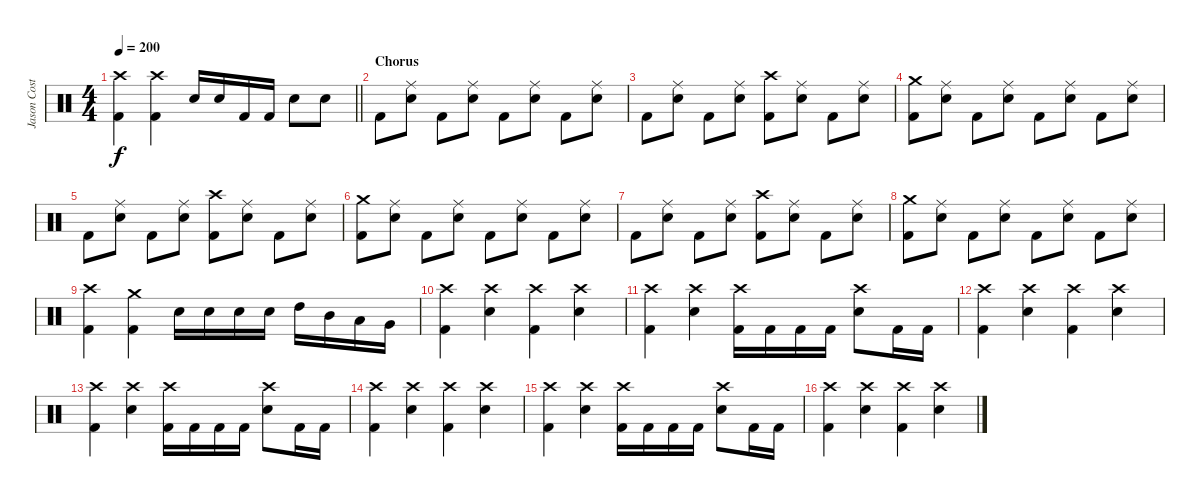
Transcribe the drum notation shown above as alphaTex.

\track ("Jason Costa" "Jason Cost") {instrument percussion}
\staff {score}
\articulation defaults
\ts (4 4)
\tempo 200
\clef neutral
\barLineRight lightlight
\ks c
("Crash high (hit)" "Kick (hit) 2").4{dy f} ("Crash high (hit)" "Kick (hit) 2").4 "Electric Snare (hit)".16 "Electric Snare (hit)".16 "Kick (hit) 2".16 "Kick (hit) 2".16 "Electric Snare (hit)".8 "Electric Snare (hit)".8 |
\section ("" "Chorus")
"Kick (hit) 2".8 ("Ride (middle)" "Electric Snare (hit)").8 "Kick (hit) 2".8 ("Ride (middle)" "Electric Snare (hit)").8 "Kick (hit) 2".8 ("Ride (middle)" "Electric Snare (hit)").8 "Kick (hit) 2".8 ("Ride (middle)" "Electric Snare (hit)").8 |
"Kick (hit) 2".8 ("Ride (middle)" "Electric Snare (hit)").8 "Kick (hit) 2".8 ("Ride (middle)" "Electric Snare (hit)").8 ("Crash high (hit)" "Kick (hit) 2").8 ("Ride (middle)" "Electric Snare (hit)").8 "Kick (hit) 2".8 ("Ride (middle)" "Electric Snare (hit)").8 |
("Crash medium (hit)" "Kick (hit) 2").8 ("Ride (middle)" "Electric Snare (hit)").8 "Kick (hit) 2".8 ("Ride (middle)" "Electric Snare (hit)").8 "Kick (hit) 2".8 ("Ride (middle)" "Electric Snare (hit)").8 "Kick (hit) 2".8 ("Ride (middle)" "Electric Snare (hit)").8 |
"Kick (hit) 2".8 ("Ride (middle)" "Electric Snare (hit)").8 "Kick (hit) 2".8 ("Ride (middle)" "Electric Snare (hit)").8 ("Crash high (hit)" "Kick (hit) 2").8 ("Ride (middle)" "Electric Snare (hit)").8 "Kick (hit) 2".8 ("Ride (middle)" "Electric Snare (hit)").8 |
("Crash medium (hit)" "Kick (hit) 2").8 ("Ride (middle)" "Electric Snare (hit)").8 "Kick (hit) 2".8 ("Ride (middle)" "Electric Snare (hit)").8 "Kick (hit) 2".8 ("Ride (middle)" "Electric Snare (hit)").8 "Kick (hit) 2".8 ("Ride (middle)" "Electric Snare (hit)").8 |
"Kick (hit) 2".8 ("Ride (middle)" "Electric Snare (hit)").8 "Kick (hit) 2".8 ("Ride (middle)" "Electric Snare (hit)").8 ("Crash high (hit)" "Kick (hit) 2").8 ("Ride (middle)" "Electric Snare (hit)").8 "Kick (hit) 2".8 ("Ride (middle)" "Electric Snare (hit)").8 |
("Crash medium (hit)" "Kick (hit) 2").8 ("Ride (middle)" "Electric Snare (hit)").8 "Kick (hit) 2".8 ("Ride (middle)" "Electric Snare (hit)").8 "Kick (hit) 2".8 ("Ride (middle)" "Electric Snare (hit)").8 "Kick (hit) 2".8 ("Ride (middle)" "Electric Snare (hit)").8 |
("Crash high (hit)" "Kick (hit) 2").4 ("Crash medium (hit)" "Kick (hit) 2").4 "Electric Snare (hit)".16 "Electric Snare (hit)".16 "Electric Snare (hit)".16 "Electric Snare (hit)".16 "High Tom (hit)".16 "Mid Tom (hit)".16 "Low Tom (hit)".16 "Very Low Tom (hit)".16 |
("Crash high (hit)" "Kick (hit) 2").4 ("Crash high (hit)" "Electric Snare (hit)").4 ("Crash high (hit)" "Kick (hit) 2").4 ("Crash high (hit)" "Electric Snare (hit)").4 |
("Crash high (hit)" "Kick (hit) 2").4 ("Crash high (hit)" "Electric Snare (hit)").4 ("Crash high (hit)" "Kick (hit) 2").16 "Kick (hit) 2".16 "Kick (hit) 2".16 "Kick (hit) 2".16 ("Crash high (hit)" "Electric Snare (hit)").8 "Kick (hit) 2".16 "Kick (hit) 2".16 |
("Crash high (hit)" "Kick (hit) 2").4 ("Crash high (hit)" "Electric Snare (hit)").4 ("Crash high (hit)" "Kick (hit) 2").4 ("Crash high (hit)" "Electric Snare (hit)").4 |
("Crash high (hit)" "Kick (hit) 2").4 ("Crash high (hit)" "Electric Snare (hit)").4 ("Crash high (hit)" "Kick (hit) 2").16 "Kick (hit) 2".16 "Kick (hit) 2".16 "Kick (hit) 2".16 ("Crash high (hit)" "Electric Snare (hit)").8 "Kick (hit) 2".16 "Kick (hit) 2".16 |
("Crash high (hit)" "Kick (hit) 2").4 ("Crash high (hit)" "Electric Snare (hit)").4 ("Crash high (hit)" "Kick (hit) 2").4 ("Crash high (hit)" "Electric Snare (hit)").4 |
("Crash high (hit)" "Kick (hit) 2").4 ("Crash high (hit)" "Electric Snare (hit)").4 ("Crash high (hit)" "Kick (hit) 2").16 "Kick (hit) 2".16 "Kick (hit) 2".16 "Kick (hit) 2".16 ("Crash high (hit)" "Electric Snare (hit)").8 "Kick (hit) 2".16 "Kick (hit) 2".16 |
("Crash high (hit)" "Kick (hit) 2").4 ("Crash high (hit)" "Electric Snare (hit)").4 ("Crash high (hit)" "Kick (hit) 2").4 ("Crash high (hit)" "Electric Snare (hit)").4
